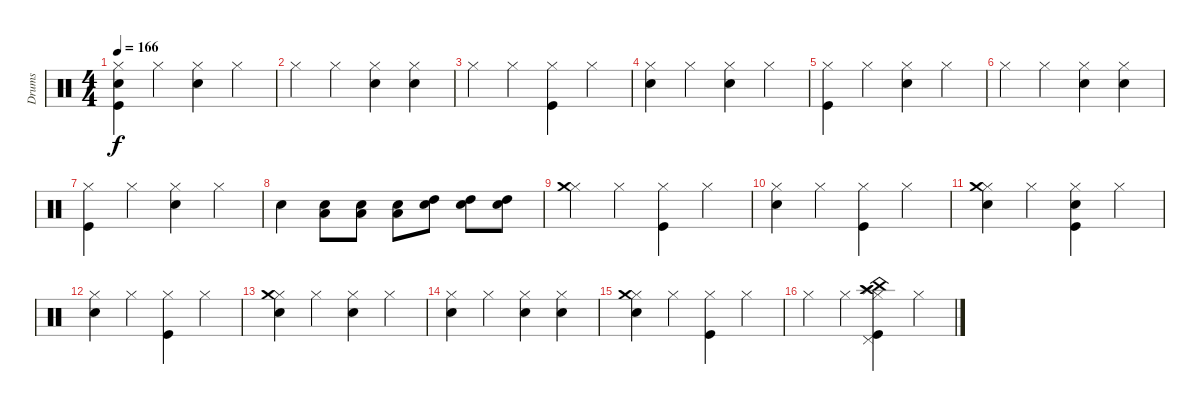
\track ("Drums" "Drums") {instrument percussion}
\staff {score}
\articulation defaults
\ts (4 4)
\tempo 166
\clef neutral
\ks c
("Hi-Hat (closed)" "Kick (hit)" "Snare (hit) 2").4{dy f} "Hi-Hat (closed)".4 ("Hi-Hat (closed)" "Snare (hit) 2").4 "Hi-Hat (closed)".4 |
"Hi-Hat (closed)".4 "Hi-Hat (closed)".4 ("Hi-Hat (closed)" "Snare (hit) 2").4 ("Hi-Hat (closed)" "Snare (hit) 2").4 |
"Hi-Hat (closed)".4 "Hi-Hat (closed)".4 ("Hi-Hat (closed)" "Kick (hit)").4 "Hi-Hat (closed)".4 |
("Hi-Hat (closed)" "Snare (hit) 2").4 "Hi-Hat (closed)".4 ("Hi-Hat (closed)" "Snare (hit) 2").4 "Hi-Hat (closed)".4 |
("Hi-Hat (closed)" "Kick (hit)").4 "Hi-Hat (closed)".4 ("Hi-Hat (closed)" "Snare (hit) 2").4 "Hi-Hat (closed)".4 |
"Hi-Hat (closed)".4 "Hi-Hat (closed)".4 ("Hi-Hat (closed)" "Snare (hit) 2").4 ("Hi-Hat (closed)" "Snare (hit) 2").4 |
("Hi-Hat (closed)" "Kick (hit)").4 "Hi-Hat (closed)".4 ("Hi-Hat (closed)" "Snare (hit) 2").4 "Hi-Hat (closed)".4 |
"Snare (hit) 2".4 ("Snare (hit) 2" "Low Tom (hit)").8 ("Snare (hit) 2" "Low Tom (hit)").8 ("Snare (hit) 2" "Low Tom (hit)").8 ("Snare (hit) 2" "High Tom (hit)").8 ("Snare (hit) 2" "High Tom (hit)").8 ("Snare (hit) 2" "High Tom (hit)").8 |
("Hi-Hat (closed)" "Crash medium (hit)").4 "Hi-Hat (closed)".4 ("Hi-Hat (closed)" "Kick (hit)").4 "Hi-Hat (closed)".4 |
("Hi-Hat (closed)" "Snare (hit) 2").4 "Hi-Hat (closed)".4 ("Hi-Hat (closed)" "Kick (hit)").4 "Hi-Hat (closed)".4 |
("Hi-Hat (closed)" "Snare (hit) 2" "Crash medium (hit)").4 "Hi-Hat (closed)".4 ("Hi-Hat (closed)" "Kick (hit)" "Snare (hit) 2").4 "Hi-Hat (closed)".4 |
("Hi-Hat (closed)" "Snare (hit) 2").4 "Hi-Hat (closed)".4 ("Hi-Hat (closed)" "Kick (hit)").4 "Hi-Hat (closed)".4 |
("Hi-Hat (closed)" "Snare (hit) 2" "Crash medium (hit)").4 "Hi-Hat (closed)".4 ("Hi-Hat (closed)" "Snare (hit) 2").4 "Hi-Hat (closed)".4 |
("Hi-Hat (closed)" "Snare (hit) 2").4 "Hi-Hat (closed)".4 ("Hi-Hat (closed)" "Snare (hit) 2").4 ("Hi-Hat (closed)" "Snare (hit) 2").4 |
("Hi-Hat (closed)" "Snare (hit) 2" "Crash medium (hit)").4 "Hi-Hat (closed)".4 ("Hi-Hat (closed)" "Kick (hit)").4 "Hi-Hat (closed)".4 |
"Hi-Hat (closed)".4 "Hi-Hat (closed)".4 ("Hi-Hat (closed)" "China (hit)" "Splash (hit)" "Pedal Hi-Hat (hit)" "Kick (hit)" "Crash high (hit)").4 "Hi-Hat (closed)".4
